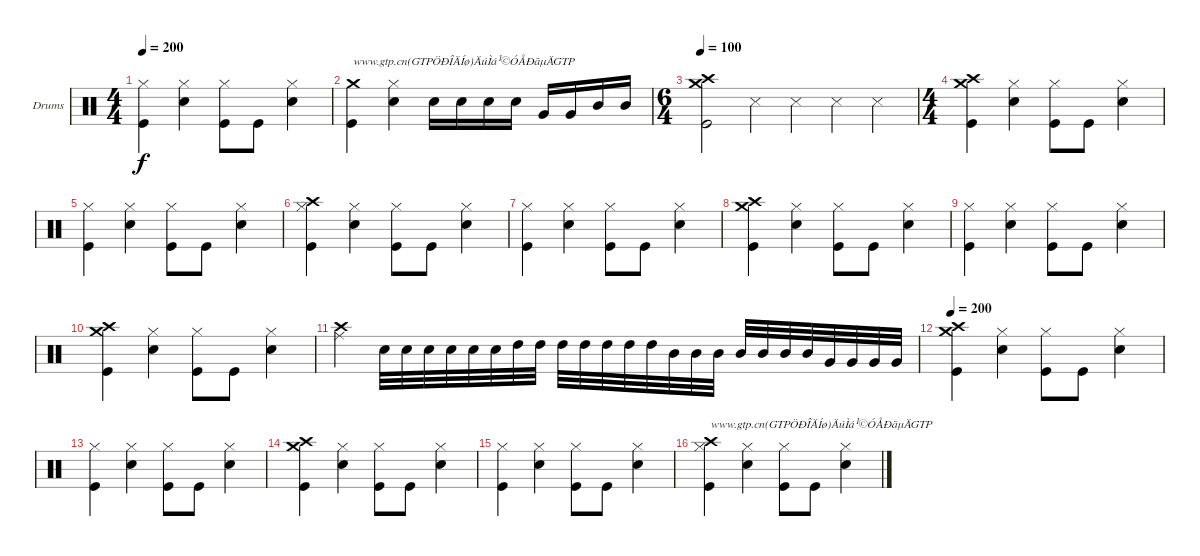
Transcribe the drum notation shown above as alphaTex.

\bracketExtendMode groupsimilarinstruments
\firstSystemTrackNameOrientation horizontal
\otherSystemsTrackNameOrientation horizontal
\track ("Drumkit" "Drums") {instrument percussion}
\staff {score}
\articulation defaults
\ts (4 4)
\tempo 200
\clef neutral
\ks c
("Hi-Hat (closed)" "Kick (hit)").4{dy f} ("Hi-Hat (closed)" "Snare (hit) 2").4 ("Hi-Hat (closed)" "Kick (hit)").8 "Kick (hit)".8 ("Hi-Hat (closed)" "Snare (hit) 2").4 |
("Crash medium (hit)" "Kick (hit)").4{txt "www.gtp.cn(GTPÖÐÎÄÍø)ÄúÌá¹©ÓÅÐãµÄGTP"} ("Hi-Hat (closed)" "Snare (hit) 2").4 "Snare (hit) 2".16 "Snare (hit) 2".16 "Snare (hit) 2".16 "Snare (hit) 2".16 "Very Low Tom (hit)".16 "Very Low Tom (hit)".16 "Mid Tom (hit)".16 "Mid Tom (hit)".16 |
\ts (6 4)
\beaming (8 6 6)
\tempo 100
("Crash high (hit)" "Crash medium (hit)" "Kick (hit)").2 "Snare (side stick) 3".4 "Snare (side stick) 3".4 "Snare (side stick) 3".4 "Snare (side stick) 3".4 |
\ts (4 4)
\beaming (8 2 2 2 2)
("Crash medium (hit)" "Crash high (hit)" "Kick (hit)").4 ("Hi-Hat (closed)" "Snare (hit) 2").4 ("Hi-Hat (closed)" "Kick (hit)").8 "Kick (hit)".8 ("Hi-Hat (closed)" "Snare (hit) 2").4 |
("Hi-Hat (closed)" "Kick (hit)").4 ("Hi-Hat (closed)" "Snare (hit) 2").4 ("Hi-Hat (closed)" "Kick (hit)").8 "Kick (hit)".8 ("Hi-Hat (closed)" "Snare (hit) 2").4 |
("Crash high (hit)" "Hi-Hat (closed)" "Kick (hit)").4 ("Hi-Hat (closed)" "Snare (hit) 2").4 ("Hi-Hat (closed)" "Kick (hit)").8 "Kick (hit)".8 ("Hi-Hat (closed)" "Snare (hit) 2").4 |
("Hi-Hat (closed)" "Kick (hit)").4 ("Hi-Hat (closed)" "Snare (hit) 2").4 ("Hi-Hat (closed)" "Kick (hit)").8 "Kick (hit)".8 ("Hi-Hat (closed)" "Snare (hit) 2").4 |
("Crash high (hit)" "Crash medium (hit)" "Kick (hit)").4 ("Hi-Hat (closed)" "Snare (hit) 2").4 ("Hi-Hat (closed)" "Kick (hit)").8 "Kick (hit)".8 ("Hi-Hat (closed)" "Snare (hit) 2").4 |
("Hi-Hat (closed)" "Kick (hit)").4 ("Hi-Hat (closed)" "Snare (hit) 2").4 ("Hi-Hat (closed)" "Kick (hit)").8 "Kick (hit)".8 ("Hi-Hat (closed)" "Snare (hit) 2").4 |
("Crash medium (hit)" "Crash high (hit)" "Kick (hit)").4 ("Hi-Hat (closed)" "Snare (hit) 2").4 ("Hi-Hat (closed)" "Kick (hit)").8 "Kick (hit)".8 ("Hi-Hat (closed)" "Snare (hit) 2").4 |
("Crash high (hit)" "Ride (middle)").4 "Snare (hit) 2".32 "Snare (hit) 2".32 "Snare (hit) 2".32 "Snare (hit) 2".32 "Snare (hit) 2".32 "Snare (hit) 2".32 "High Tom (hit)".32 "High Tom (hit)".32 "High Tom (hit)".32 "High Tom (hit)".32 "High Tom (hit)".32 "High Tom (hit)".32 "High Tom (hit)".32 "Mid Tom (hit)".32 "Mid Tom (hit)".32 "Mid Tom (hit)".32 "Mid Tom (hit)".32 "Mid Tom (hit)".32 "Mid Tom (hit)".32 "Mid Tom (hit)".32 "Very Low Tom (hit)".32 "Very Low Tom (hit)".32 "Very Low Tom (hit)".32 "Very Low Tom (hit)".32 |
\tempo 200
("Crash high (hit)" "Crash medium (hit)" "Kick (hit)").4 ("Hi-Hat (closed)" "Snare (hit) 2").4 ("Hi-Hat (closed)" "Kick (hit)").8 "Kick (hit)".8 ("Hi-Hat (closed)" "Snare (hit) 2").4 |
("Hi-Hat (closed)" "Kick (hit)").4 ("Hi-Hat (closed)" "Snare (hit) 2").4 ("Hi-Hat (closed)" "Kick (hit)").8 "Kick (hit)".8 ("Hi-Hat (closed)" "Snare (hit) 2").4 |
("Crash high (hit)" "Crash medium (hit)" "Kick (hit)").4 ("Hi-Hat (closed)" "Snare (hit) 2").4 ("Hi-Hat (closed)" "Kick (hit)").8 "Kick (hit)".8 ("Hi-Hat (closed)" "Snare (hit) 2").4 |
("Hi-Hat (closed)" "Kick (hit)").4 ("Hi-Hat (closed)" "Snare (hit) 2").4 ("Hi-Hat (closed)" "Kick (hit)").8 "Kick (hit)".8 ("Hi-Hat (closed)" "Snare (hit) 2").4 |
("Crash high (hit)" "Hi-Hat (closed)" "Kick (hit)").4{txt "www.gtp.cn(GTPÖÐÎÄÍø)ÄúÌá¹©ÓÅÐãµÄGTP"} ("Hi-Hat (closed)" "Snare (hit) 2").4 ("Hi-Hat (closed)" "Kick (hit)").8 "Kick (hit)".8 ("Hi-Hat (closed)" "Snare (hit) 2").4
